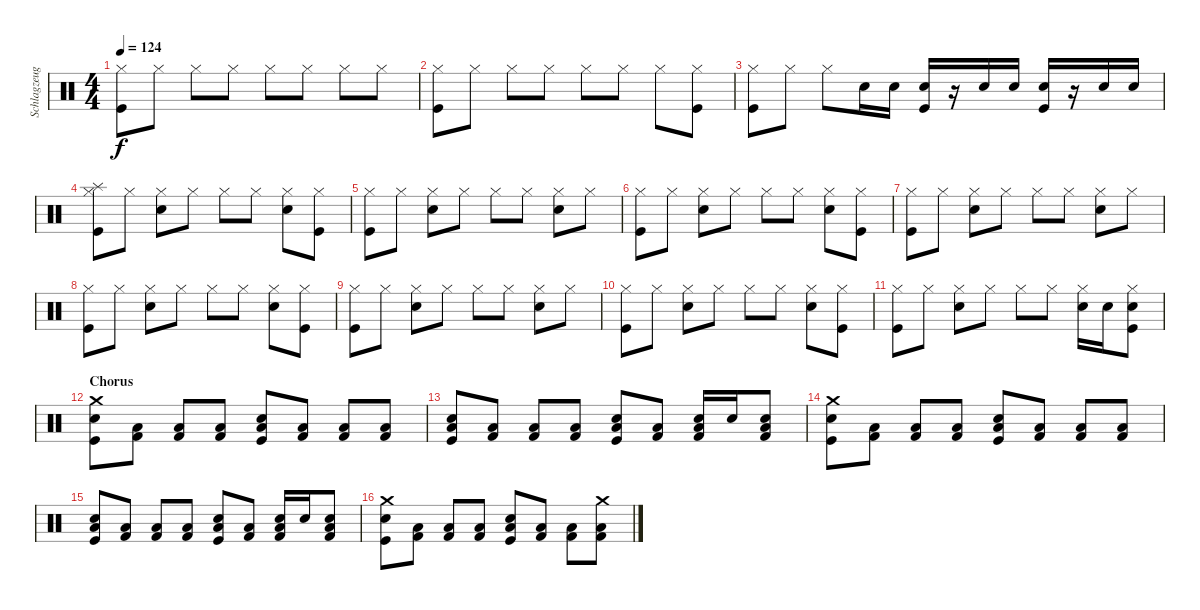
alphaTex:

\track ("Schlagzeug - Bela B." "Schlagzeug") {instrument percussion}
\staff {score}
\articulation defaults
\ts (4 4)
\tempo 124
\clef neutral
\ks c
("Kick (hit)" "Hi-Hat (closed)").8{dy f} "Hi-Hat (closed)".8 "Hi-Hat (closed)".8 "Hi-Hat (closed)".8 "Hi-Hat (closed)".8 "Hi-Hat (closed)".8 "Hi-Hat (closed)".8 "Hi-Hat (closed)".8 |
("Kick (hit)" "Hi-Hat (closed)").8 "Hi-Hat (closed)".8 "Hi-Hat (closed)".8 "Hi-Hat (closed)".8 "Hi-Hat (closed)".8 "Hi-Hat (closed)".8 "Hi-Hat (closed)".8 ("Hi-Hat (closed)" "Kick (hit)").8 |
("Kick (hit)" "Hi-Hat (closed)").8 "Hi-Hat (closed)".8 "Hi-Hat (closed)".8 "Snare (hit) 2".16 "Snare (hit) 2".16 ("Snare (hit) 2" "Kick (hit)").16 r.16 "Snare (hit) 2".16 "Snare (hit) 2".16 ("Snare (hit) 2" "Kick (hit)").16 r.16 "Snare (hit) 2".16 "Snare (hit) 2".16 |
("Kick (hit)" "Hi-Hat (closed)" "Splash (hit)").8 "Hi-Hat (closed)".8 ("Hi-Hat (closed)" "Snare (hit) 2").8 "Hi-Hat (closed)".8 "Hi-Hat (closed)".8 "Hi-Hat (closed)".8 ("Hi-Hat (closed)" "Snare (hit) 2").8 ("Hi-Hat (closed)" "Kick (hit)").8 |
("Kick (hit)" "Hi-Hat (closed)").8 "Hi-Hat (closed)".8 ("Hi-Hat (closed)" "Snare (hit) 2").8 "Hi-Hat (closed)".8 "Hi-Hat (closed)".8 "Hi-Hat (closed)".8 ("Hi-Hat (closed)" "Snare (hit) 2").8 "Hi-Hat (closed)".8 |
("Kick (hit)" "Hi-Hat (closed)").8 "Hi-Hat (closed)".8 ("Hi-Hat (closed)" "Snare (hit) 2").8 "Hi-Hat (closed)".8 "Hi-Hat (closed)".8 "Hi-Hat (closed)".8 ("Hi-Hat (closed)" "Snare (hit) 2").8 ("Hi-Hat (closed)" "Kick (hit)").8 |
("Kick (hit)" "Hi-Hat (closed)").8 "Hi-Hat (closed)".8 ("Hi-Hat (closed)" "Snare (hit) 2").8 "Hi-Hat (closed)".8 "Hi-Hat (closed)".8 "Hi-Hat (closed)".8 ("Hi-Hat (closed)" "Snare (hit) 2").8 "Hi-Hat (closed)".8 |
("Kick (hit)" "Hi-Hat (closed)").8 "Hi-Hat (closed)".8 ("Hi-Hat (closed)" "Snare (hit) 2").8 "Hi-Hat (closed)".8 "Hi-Hat (closed)".8 "Hi-Hat (closed)".8 ("Hi-Hat (closed)" "Snare (hit) 2").8 ("Hi-Hat (closed)" "Kick (hit)").8 |
("Kick (hit)" "Hi-Hat (closed)").8 "Hi-Hat (closed)".8 ("Hi-Hat (closed)" "Snare (hit) 2").8 "Hi-Hat (closed)".8 "Hi-Hat (closed)".8 "Hi-Hat (closed)".8 ("Hi-Hat (closed)" "Snare (hit) 2").8 "Hi-Hat (closed)".8 |
("Kick (hit)" "Hi-Hat (closed)").8 "Hi-Hat (closed)".8 ("Hi-Hat (closed)" "Snare (hit) 2").8 "Hi-Hat (closed)".8 "Hi-Hat (closed)".8 "Hi-Hat (closed)".8 ("Hi-Hat (closed)" "Snare (hit) 2").8 ("Hi-Hat (closed)" "Kick (hit)").8 |
("Kick (hit)" "Hi-Hat (closed)").8 "Hi-Hat (closed)".8 ("Hi-Hat (closed)" "Snare (hit) 2").8 "Hi-Hat (closed)".8 "Hi-Hat (closed)".8 "Hi-Hat (closed)".8 ("Hi-Hat (closed)" "Snare (hit) 2").16 "Snare (hit) 2".16 ("Hi-Hat (closed)" "Kick (hit)" "Snare (hit) 2").8 |
\section ("" "Chorus")
("Crash medium (hit)" "Kick (hit)" "Snare (hit) 2").8 ("Low Floor Tom (hit)" "Kick (hit) 2").8 ("Low Floor Tom (hit)" "Kick (hit) 2").8 ("Low Floor Tom (hit)" "Kick (hit) 2").8 ("Low Floor Tom (hit)" "Kick (hit)" "Snare (hit) 2").8 ("Low Floor Tom (hit)" "Kick (hit) 2").8 ("Low Floor Tom (hit)" "Kick (hit) 2").8 ("Low Floor Tom (hit)" "Kick (hit) 2").8 |
("Low Floor Tom (hit)" "Kick (hit)" "Snare (hit) 2").8 ("Low Floor Tom (hit)" "Kick (hit) 2").8 ("Low Floor Tom (hit)" "Kick (hit) 2").8 ("Low Floor Tom (hit)" "Kick (hit) 2").8 ("Low Floor Tom (hit)" "Kick (hit)" "Snare (hit) 2").8 ("Low Floor Tom (hit)" "Kick (hit) 2").8 ("Low Floor Tom (hit)" "Kick (hit) 2" "Snare (hit) 2").16 "Snare (hit) 2".16 ("Low Floor Tom (hit)" "Kick (hit) 2" "Snare (hit) 2").8 |
("Crash medium (hit)" "Kick (hit)" "Snare (hit) 2").8 ("Low Floor Tom (hit)" "Kick (hit) 2").8 ("Low Floor Tom (hit)" "Kick (hit) 2").8 ("Low Floor Tom (hit)" "Kick (hit) 2").8 ("Low Floor Tom (hit)" "Kick (hit)" "Snare (hit) 2").8 ("Low Floor Tom (hit)" "Kick (hit) 2").8 ("Low Floor Tom (hit)" "Kick (hit) 2").8 ("Low Floor Tom (hit)" "Kick (hit) 2").8 |
("Low Floor Tom (hit)" "Kick (hit)" "Snare (hit) 2").8 ("Low Floor Tom (hit)" "Kick (hit) 2").8 ("Low Floor Tom (hit)" "Kick (hit) 2").8 ("Low Floor Tom (hit)" "Kick (hit) 2").8 ("Low Floor Tom (hit)" "Kick (hit)" "Snare (hit) 2").8 ("Low Floor Tom (hit)" "Kick (hit) 2").8 ("Low Floor Tom (hit)" "Kick (hit) 2" "Snare (hit) 2").16 "Snare (hit) 2".16 ("Low Floor Tom (hit)" "Kick (hit) 2" "Snare (hit) 2").8 |
("Crash medium (hit)" "Kick (hit)" "Snare (hit) 2").8 ("Low Floor Tom (hit)" "Kick (hit) 2").8 ("Low Floor Tom (hit)" "Kick (hit) 2").8 ("Low Floor Tom (hit)" "Kick (hit) 2").8 ("Low Floor Tom (hit)" "Kick (hit)" "Snare (hit) 2").8 ("Low Floor Tom (hit)" "Kick (hit) 2").8 ("Low Floor Tom (hit)" "Kick (hit) 2").8 ("Low Floor Tom (hit)" "Kick (hit) 2" "Crash medium (hit)").8
